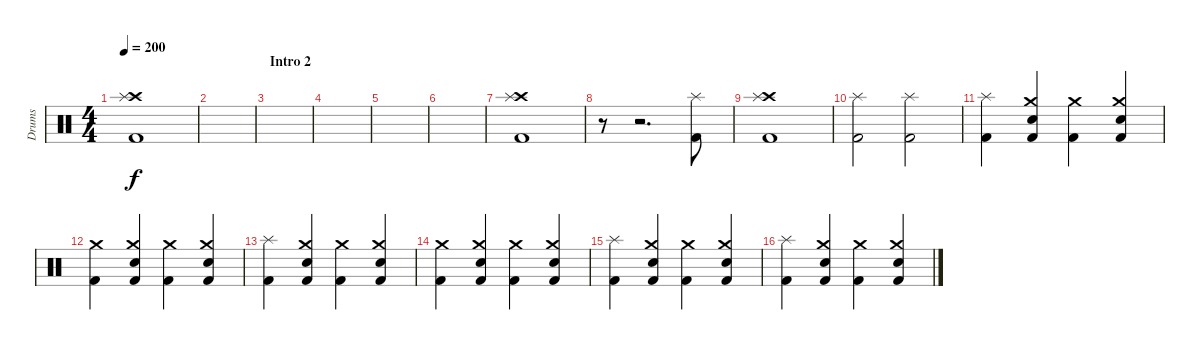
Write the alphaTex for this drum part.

\track ("Drums" "Drums") {instrument percussion}
\staff {score}
\articulation defaults
\ts (4 4)
\tempo 200
\clef neutral
\ks c
("Kick (hit) 2" "Crash high (hit)" "Splash (hit)").1{dy f} |
|
\section ("" "Intro 2")
|
|
|
|
("Kick (hit) 2" "Crash high (hit)" "Splash (hit)").1 |
r.8 r.2{d} ("Kick (hit) 2" "Splash (hit)").8 |
("Kick (hit) 2" "Crash high (hit)" "Splash (hit)").1 |
("Kick (hit) 2" "Splash (hit)").2 ("Kick (hit) 2" "Splash (hit)").2 |
("Kick (hit) 2" "Splash (hit)").4 ("Kick (hit) 2" "Crash medium (hit)" "Electric Snare (hit)").4 ("Kick (hit) 2" "Crash medium (hit)").4 ("Kick (hit) 2" "Crash medium (hit)" "Electric Snare (hit)").4 |
("Kick (hit) 2" "Crash medium (hit)").4 ("Kick (hit) 2" "Crash medium (hit)" "Electric Snare (hit)").4 ("Kick (hit) 2" "Crash medium (hit)").4 ("Kick (hit) 2" "Crash medium (hit)" "Electric Snare (hit)").4 |
("Kick (hit) 2" "Splash (hit)").4 ("Kick (hit) 2" "Crash medium (hit)" "Electric Snare (hit)").4 ("Kick (hit) 2" "Crash medium (hit)").4 ("Kick (hit) 2" "Crash medium (hit)" "Electric Snare (hit)").4 |
("Kick (hit) 2" "Crash medium (hit)").4 ("Kick (hit) 2" "Crash medium (hit)" "Electric Snare (hit)").4 ("Kick (hit) 2" "Crash medium (hit)").4 ("Kick (hit) 2" "Crash medium (hit)" "Electric Snare (hit)").4 |
("Kick (hit) 2" "Splash (hit)").4 ("Kick (hit) 2" "Crash medium (hit)" "Electric Snare (hit)").4 ("Kick (hit) 2" "Crash medium (hit)").4 ("Kick (hit) 2" "Crash medium (hit)" "Electric Snare (hit)").4 |
("Kick (hit) 2" "Splash (hit)").4 ("Kick (hit) 2" "Crash medium (hit)" "Electric Snare (hit)").4 ("Kick (hit) 2" "Crash medium (hit)").4 ("Kick (hit) 2" "Crash medium (hit)" "Electric Snare (hit)").4
